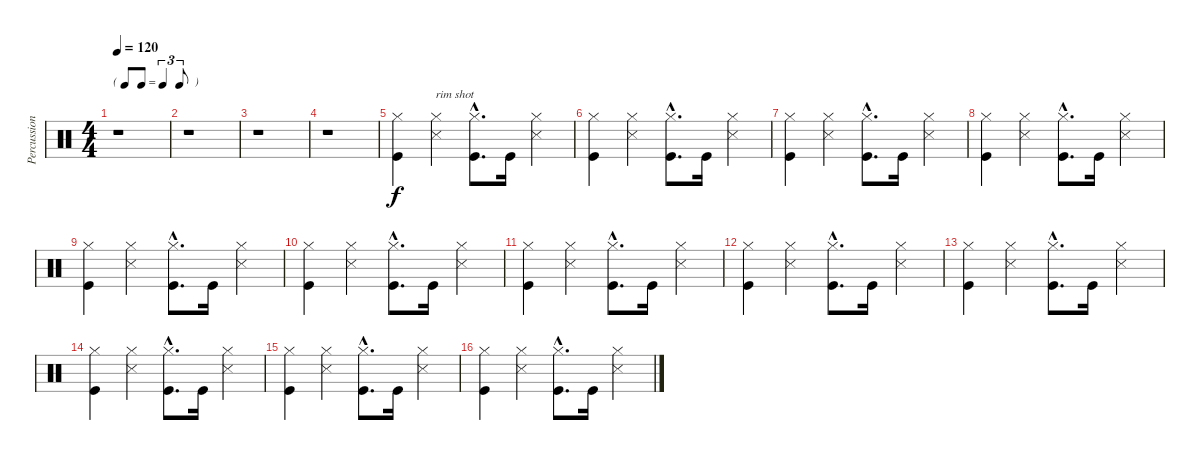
\track ("Percussion" "Percussion") {instrument percussion}
\staff {score}
\articulation defaults
\ts (4 4)
\tf triplet8th
\tempo 120
\clef neutral
\ks c
r.1{dy f} |
r.1 |
r.1 |
r.1 |
("Hi-Hat (closed)" "Kick (hit)").4 ("Hi-Hat (closed)" "Snare (side stick) 3").4{txt "rim shot"} ("Hi-Hat (closed)"{hac} "Kick (hit)"{hac}).8{d} "Kick (hit)".16 ("Hi-Hat (closed)" "Snare (side stick) 3").4 |
("Hi-Hat (closed)" "Kick (hit)").4 ("Hi-Hat (closed)" "Snare (side stick) 3").4 ("Hi-Hat (closed)"{hac} "Kick (hit)"{hac}).8{d} "Kick (hit)".16 ("Hi-Hat (closed)" "Snare (side stick) 3").4 |
("Hi-Hat (closed)" "Kick (hit)").4 ("Hi-Hat (closed)" "Snare (side stick) 3").4 ("Hi-Hat (closed)"{hac} "Kick (hit)"{hac}).8{d} "Kick (hit)".16 ("Hi-Hat (closed)" "Snare (side stick) 3").4 |
("Hi-Hat (closed)" "Kick (hit)").4 ("Hi-Hat (closed)" "Snare (side stick) 3").4 ("Hi-Hat (closed)"{hac} "Kick (hit)"{hac}).8{d} "Kick (hit)".16 ("Hi-Hat (closed)" "Snare (side stick) 3").4 |
("Hi-Hat (closed)" "Kick (hit)").4 ("Hi-Hat (closed)" "Snare (side stick) 3").4 ("Hi-Hat (closed)"{hac} "Kick (hit)"{hac}).8{d} "Kick (hit)".16 ("Hi-Hat (closed)" "Snare (side stick) 3").4 |
("Hi-Hat (closed)" "Kick (hit)").4 ("Hi-Hat (closed)" "Snare (side stick) 3").4 ("Hi-Hat (closed)"{hac} "Kick (hit)"{hac}).8{d} "Kick (hit)".16 ("Hi-Hat (closed)" "Snare (side stick) 3").4 |
("Hi-Hat (closed)" "Kick (hit)").4 ("Hi-Hat (closed)" "Snare (side stick) 3").4 ("Hi-Hat (closed)"{hac} "Kick (hit)"{hac}).8{d} "Kick (hit)".16 ("Hi-Hat (closed)" "Snare (side stick) 3").4 |
("Hi-Hat (closed)" "Kick (hit)").4 ("Hi-Hat (closed)" "Snare (side stick) 3").4 ("Hi-Hat (closed)"{hac} "Kick (hit)"{hac}).8{d} "Kick (hit)".16 ("Hi-Hat (closed)" "Snare (side stick) 3").4 |
("Hi-Hat (closed)" "Kick (hit)").4 ("Hi-Hat (closed)" "Snare (side stick) 3").4 ("Hi-Hat (closed)"{hac} "Kick (hit)"{hac}).8{d} "Kick (hit)".16 ("Hi-Hat (closed)" "Snare (side stick) 3").4 |
("Hi-Hat (closed)" "Kick (hit)").4 ("Hi-Hat (closed)" "Snare (side stick) 3").4 ("Hi-Hat (closed)"{hac} "Kick (hit)"{hac}).8{d} "Kick (hit)".16 ("Hi-Hat (closed)" "Snare (side stick) 3").4 |
("Hi-Hat (closed)" "Kick (hit)").4 ("Hi-Hat (closed)" "Snare (side stick) 3").4 ("Hi-Hat (closed)"{hac} "Kick (hit)"{hac}).8{d} "Kick (hit)".16 ("Hi-Hat (closed)" "Snare (side stick) 3").4 |
("Hi-Hat (closed)" "Kick (hit)").4 ("Hi-Hat (closed)" "Snare (side stick) 3").4 ("Hi-Hat (closed)"{hac} "Kick (hit)"{hac}).8{d} "Kick (hit)".16 ("Hi-Hat (closed)" "Snare (side stick) 3").4
